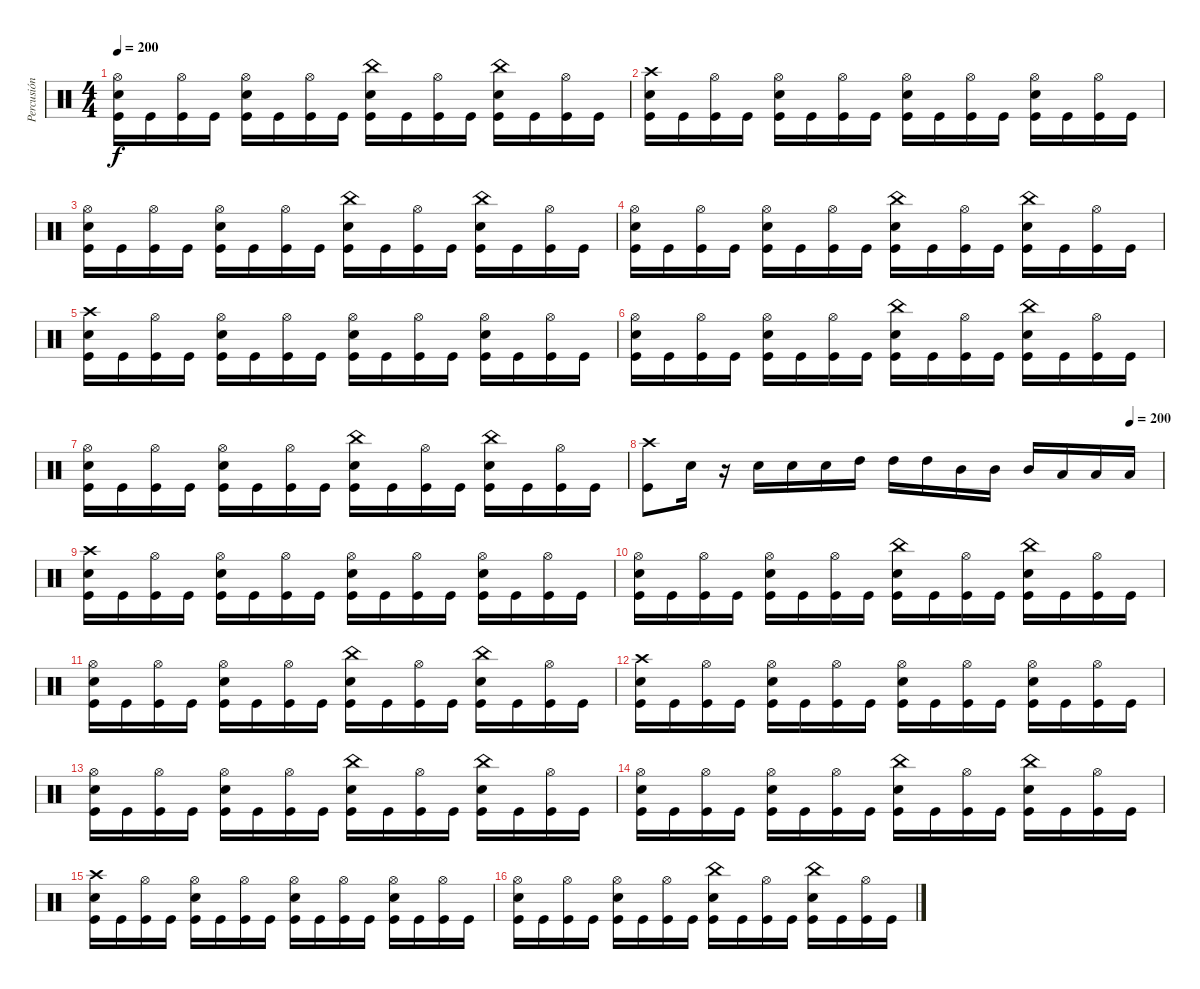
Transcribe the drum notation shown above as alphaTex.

\track ("Percusión" "Percusión") {instrument percussion}
\staff {score}
\articulation defaults
\ts (4 4)
\tempo 200
\clef neutral
\ks c
("Hi-Hat (open)" "Snare (hit) 2" "Kick (hit)").16{dy f} "Kick (hit)".16 ("Hi-Hat (open)" "Kick (hit)").16 "Kick (hit)".16 ("Hi-Hat (open)" "Snare (hit) 2" "Kick (hit)").16 "Kick (hit)".16 ("Hi-Hat (open)" "Kick (hit)").16 "Kick (hit)".16 ("China (hit)" "Snare (hit) 2" "Kick (hit)").16 "Kick (hit)".16 ("Hi-Hat (open)" "Kick (hit)").16 "Kick (hit)".16 ("China (hit)" "Snare (hit) 2" "Kick (hit)").16 "Kick (hit)".16 ("Hi-Hat (open)" "Kick (hit)").16 "Kick (hit)".16 |
("Crash high (hit)" "Snare (hit) 2" "Kick (hit)").16 "Kick (hit)".16 ("Hi-Hat (open)" "Kick (hit)").16 "Kick (hit)".16 ("Hi-Hat (open)" "Snare (hit) 2" "Kick (hit)").16 "Kick (hit)".16 ("Hi-Hat (open)" "Kick (hit)").16 "Kick (hit)".16 ("Hi-Hat (open)" "Snare (hit) 2" "Kick (hit)").16 "Kick (hit)".16 ("Hi-Hat (open)" "Kick (hit)").16 "Kick (hit)".16 ("Hi-Hat (open)" "Snare (hit) 2" "Kick (hit)").16 "Kick (hit)".16 ("Hi-Hat (open)" "Kick (hit)").16 "Kick (hit)".16 |
("Hi-Hat (open)" "Snare (hit) 2" "Kick (hit)").16 "Kick (hit)".16 ("Hi-Hat (open)" "Kick (hit)").16 "Kick (hit)".16 ("Hi-Hat (open)" "Snare (hit) 2" "Kick (hit)").16 "Kick (hit)".16 ("Hi-Hat (open)" "Kick (hit)").16 "Kick (hit)".16 ("China (hit)" "Snare (hit) 2" "Kick (hit)").16 "Kick (hit)".16 ("Hi-Hat (open)" "Kick (hit)").16 "Kick (hit)".16 ("China (hit)" "Snare (hit) 2" "Kick (hit)").16 "Kick (hit)".16 ("Hi-Hat (open)" "Kick (hit)").16 "Kick (hit)".16 |
("Hi-Hat (open)" "Snare (hit) 2" "Kick (hit)").16 "Kick (hit)".16 ("Hi-Hat (open)" "Kick (hit)").16 "Kick (hit)".16 ("Hi-Hat (open)" "Snare (hit) 2" "Kick (hit)").16 "Kick (hit)".16 ("Hi-Hat (open)" "Kick (hit)").16 "Kick (hit)".16 ("China (hit)" "Snare (hit) 2" "Kick (hit)").16 "Kick (hit)".16 ("Hi-Hat (open)" "Kick (hit)").16 "Kick (hit)".16 ("China (hit)" "Snare (hit) 2" "Kick (hit)").16 "Kick (hit)".16 ("Hi-Hat (open)" "Kick (hit)").16 "Kick (hit)".16 |
("Crash high (hit)" "Snare (hit) 2" "Kick (hit)").16 "Kick (hit)".16 ("Hi-Hat (open)" "Kick (hit)").16 "Kick (hit)".16 ("Hi-Hat (open)" "Snare (hit) 2" "Kick (hit)").16 "Kick (hit)".16 ("Hi-Hat (open)" "Kick (hit)").16 "Kick (hit)".16 ("Hi-Hat (open)" "Snare (hit) 2" "Kick (hit)").16 "Kick (hit)".16 ("Hi-Hat (open)" "Kick (hit)").16 "Kick (hit)".16 ("Hi-Hat (open)" "Snare (hit) 2" "Kick (hit)").16 "Kick (hit)".16 ("Hi-Hat (open)" "Kick (hit)").16 "Kick (hit)".16 |
("Hi-Hat (open)" "Snare (hit) 2" "Kick (hit)").16 "Kick (hit)".16 ("Hi-Hat (open)" "Kick (hit)").16 "Kick (hit)".16 ("Hi-Hat (open)" "Snare (hit) 2" "Kick (hit)").16 "Kick (hit)".16 ("Hi-Hat (open)" "Kick (hit)").16 "Kick (hit)".16 ("China (hit)" "Snare (hit) 2" "Kick (hit)").16 "Kick (hit)".16 ("Hi-Hat (open)" "Kick (hit)").16 "Kick (hit)".16 ("China (hit)" "Snare (hit) 2" "Kick (hit)").16 "Kick (hit)".16 ("Hi-Hat (open)" "Kick (hit)").16 "Kick (hit)".16 |
("Hi-Hat (open)" "Snare (hit) 2" "Kick (hit)").16 "Kick (hit)".16 ("Hi-Hat (open)" "Kick (hit)").16 "Kick (hit)".16 ("Hi-Hat (open)" "Snare (hit) 2" "Kick (hit)").16 "Kick (hit)".16 ("Hi-Hat (open)" "Kick (hit)").16 "Kick (hit)".16 ("China (hit)" "Snare (hit) 2" "Kick (hit)").16 "Kick (hit)".16 ("Hi-Hat (open)" "Kick (hit)").16 "Kick (hit)".16 ("China (hit)" "Snare (hit) 2" "Kick (hit)").16 "Kick (hit)".16 ("Hi-Hat (open)" "Kick (hit)").16 "Kick (hit)".16 |
\tempo (200 0.9375)
("Crash high (hit)" "Kick (hit)").8 "Snare (hit) 2".16 r.16 "Snare (hit) 2".16 "Snare (hit) 2".16 "Snare (hit) 2".16 "High Tom (hit)".16 "High Tom (hit)".16 "High Tom (hit)".16 "Mid Tom (hit)".16 "Mid Tom (hit)".16 "Mid Tom (hit)".16 "Low Tom (hit)".16 "Low Tom (hit)".16 "Low Tom (hit)".16 |
("Crash high (hit)" "Snare (hit) 2" "Kick (hit)").16 "Kick (hit)".16 ("Hi-Hat (open)" "Kick (hit)").16 "Kick (hit)".16 ("Hi-Hat (open)" "Snare (hit) 2" "Kick (hit)").16 "Kick (hit)".16 ("Hi-Hat (open)" "Kick (hit)").16 "Kick (hit)".16 ("Hi-Hat (open)" "Snare (hit) 2" "Kick (hit)").16 "Kick (hit)".16 ("Hi-Hat (open)" "Kick (hit)").16 "Kick (hit)".16 ("Hi-Hat (open)" "Snare (hit) 2" "Kick (hit)").16 "Kick (hit)".16 ("Hi-Hat (open)" "Kick (hit)").16 "Kick (hit)".16 |
("Hi-Hat (open)" "Snare (hit) 2" "Kick (hit)").16 "Kick (hit)".16 ("Hi-Hat (open)" "Kick (hit)").16 "Kick (hit)".16 ("Hi-Hat (open)" "Snare (hit) 2" "Kick (hit)").16 "Kick (hit)".16 ("Hi-Hat (open)" "Kick (hit)").16 "Kick (hit)".16 ("China (hit)" "Snare (hit) 2" "Kick (hit)").16 "Kick (hit)".16 ("Hi-Hat (open)" "Kick (hit)").16 "Kick (hit)".16 ("China (hit)" "Snare (hit) 2" "Kick (hit)").16 "Kick (hit)".16 ("Hi-Hat (open)" "Kick (hit)").16 "Kick (hit)".16 |
("Hi-Hat (open)" "Snare (hit) 2" "Kick (hit)").16 "Kick (hit)".16 ("Hi-Hat (open)" "Kick (hit)").16 "Kick (hit)".16 ("Hi-Hat (open)" "Snare (hit) 2" "Kick (hit)").16 "Kick (hit)".16 ("Hi-Hat (open)" "Kick (hit)").16 "Kick (hit)".16 ("China (hit)" "Snare (hit) 2" "Kick (hit)").16 "Kick (hit)".16 ("Hi-Hat (open)" "Kick (hit)").16 "Kick (hit)".16 ("China (hit)" "Snare (hit) 2" "Kick (hit)").16 "Kick (hit)".16 ("Hi-Hat (open)" "Kick (hit)").16 "Kick (hit)".16 |
("Crash high (hit)" "Snare (hit) 2" "Kick (hit)").16 "Kick (hit)".16 ("Hi-Hat (open)" "Kick (hit)").16 "Kick (hit)".16 ("Hi-Hat (open)" "Snare (hit) 2" "Kick (hit)").16 "Kick (hit)".16 ("Hi-Hat (open)" "Kick (hit)").16 "Kick (hit)".16 ("Hi-Hat (open)" "Snare (hit) 2" "Kick (hit)").16 "Kick (hit)".16 ("Hi-Hat (open)" "Kick (hit)").16 "Kick (hit)".16 ("Hi-Hat (open)" "Snare (hit) 2" "Kick (hit)").16 "Kick (hit)".16 ("Hi-Hat (open)" "Kick (hit)").16 "Kick (hit)".16 |
("Hi-Hat (open)" "Snare (hit) 2" "Kick (hit)").16 "Kick (hit)".16 ("Hi-Hat (open)" "Kick (hit)").16 "Kick (hit)".16 ("Hi-Hat (open)" "Snare (hit) 2" "Kick (hit)").16 "Kick (hit)".16 ("Hi-Hat (open)" "Kick (hit)").16 "Kick (hit)".16 ("China (hit)" "Snare (hit) 2" "Kick (hit)").16 "Kick (hit)".16 ("Hi-Hat (open)" "Kick (hit)").16 "Kick (hit)".16 ("China (hit)" "Snare (hit) 2" "Kick (hit)").16 "Kick (hit)".16 ("Hi-Hat (open)" "Kick (hit)").16 "Kick (hit)".16 |
("Hi-Hat (open)" "Snare (hit) 2" "Kick (hit)").16 "Kick (hit)".16 ("Hi-Hat (open)" "Kick (hit)").16 "Kick (hit)".16 ("Hi-Hat (open)" "Snare (hit) 2" "Kick (hit)").16 "Kick (hit)".16 ("Hi-Hat (open)" "Kick (hit)").16 "Kick (hit)".16 ("China (hit)" "Snare (hit) 2" "Kick (hit)").16 "Kick (hit)".16 ("Hi-Hat (open)" "Kick (hit)").16 "Kick (hit)".16 ("China (hit)" "Snare (hit) 2" "Kick (hit)").16 "Kick (hit)".16 ("Hi-Hat (open)" "Kick (hit)").16 "Kick (hit)".16 |
("Crash high (hit)" "Snare (hit) 2" "Kick (hit)").16 "Kick (hit)".16 ("Hi-Hat (open)" "Kick (hit)").16 "Kick (hit)".16 ("Hi-Hat (open)" "Snare (hit) 2" "Kick (hit)").16 "Kick (hit)".16 ("Hi-Hat (open)" "Kick (hit)").16 "Kick (hit)".16 ("Hi-Hat (open)" "Snare (hit) 2" "Kick (hit)").16 "Kick (hit)".16 ("Hi-Hat (open)" "Kick (hit)").16 "Kick (hit)".16 ("Hi-Hat (open)" "Snare (hit) 2" "Kick (hit)").16 "Kick (hit)".16 ("Hi-Hat (open)" "Kick (hit)").16 "Kick (hit)".16 |
("Hi-Hat (open)" "Snare (hit) 2" "Kick (hit)").16 "Kick (hit)".16 ("Hi-Hat (open)" "Kick (hit)").16 "Kick (hit)".16 ("Hi-Hat (open)" "Snare (hit) 2" "Kick (hit)").16 "Kick (hit)".16 ("Hi-Hat (open)" "Kick (hit)").16 "Kick (hit)".16 ("China (hit)" "Snare (hit) 2" "Kick (hit)").16 "Kick (hit)".16 ("Hi-Hat (open)" "Kick (hit)").16 "Kick (hit)".16 ("China (hit)" "Snare (hit) 2" "Kick (hit)").16 "Kick (hit)".16 ("Hi-Hat (open)" "Kick (hit)").16 "Kick (hit)".16
